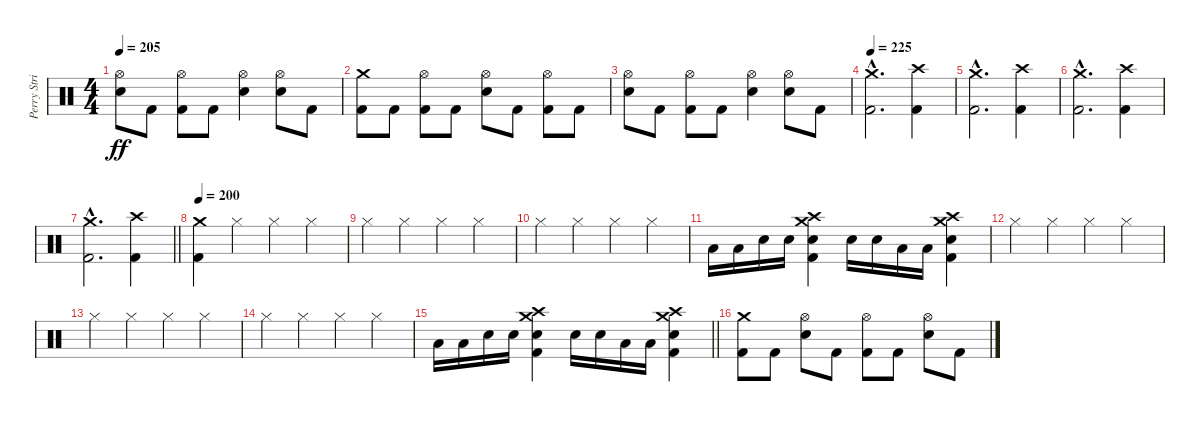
\track ("Perry Strickland" "Perry Stri") {instrument percussion}
\staff {score}
\articulation defaults
\ts (4 4)
\tempo 205
\clef neutral
\ks c
("Hi-Hat (open)" "Snare (hit) 2").8{dy ff} "Kick (hit) 2".8 ("Hi-Hat (open)" "Kick (hit) 2").8 "Kick (hit) 2".8 ("Hi-Hat (open)" "Snare (hit) 2").4 ("Hi-Hat (open)" "Snare (hit) 2").8 "Kick (hit) 2".8 |
("Crash medium (hit)" "Kick (hit) 2").8 "Kick (hit) 2".8 ("Hi-Hat (open)" "Kick (hit) 2").8 "Kick (hit) 2".8 ("Hi-Hat (open)" "Snare (hit) 2").8 "Kick (hit) 2".8 ("Hi-Hat (open)" "Kick (hit) 2").8 "Kick (hit) 2".8 |
("Hi-Hat (open)" "Snare (hit) 2").8 "Kick (hit) 2".8 ("Hi-Hat (open)" "Kick (hit) 2").8 "Kick (hit) 2".8 ("Hi-Hat (open)" "Snare (hit) 2").4 ("Hi-Hat (open)" "Snare (hit) 2").8 "Kick (hit) 2".8 |
\tempo 225
("Crash medium (hit)"{hac} "Kick (hit) 2"{hac}).2{d} ("Crash high (hit)" "Kick (hit) 2").4 |
("Crash medium (hit)"{hac} "Kick (hit) 2"{hac}).2{d} ("Crash high (hit)" "Kick (hit) 2").4 |
("Crash medium (hit)"{hac} "Kick (hit) 2"{hac}).2{d} ("Crash high (hit)" "Kick (hit) 2").4 |
\barLineRight lightlight
("Crash medium (hit)"{hac} "Kick (hit) 2"{hac}).2{d} ("Crash high (hit)" "Kick (hit) 2").4 |
\tempo 200
("Crash medium (hit)" "Kick (hit) 2").4 "Hi-Hat (closed)".4 "Hi-Hat (closed)".4 "Hi-Hat (closed)".4 |
"Hi-Hat (closed)".4 "Hi-Hat (closed)".4 "Hi-Hat (closed)".4 "Hi-Hat (closed)".4 |
"Hi-Hat (closed)".4 "Hi-Hat (closed)".4 "Hi-Hat (closed)".4 "Hi-Hat (closed)".4 |
"Low Tom (hit)".16 "Low Tom (hit)".16 "Snare (hit) 2".16 "Snare (hit) 2".16 ("Crash high (hit)" "Crash medium (hit)" "Snare (hit) 2" "Kick (hit) 2").4 "Snare (hit) 2".16 "Snare (hit) 2".16 "Low Tom (hit)".16 "Low Tom (hit)".16 ("Crash high (hit)" "Crash medium (hit)" "Snare (hit) 2" "Kick (hit) 2").4 |
"Hi-Hat (closed)".4 "Hi-Hat (closed)".4 "Hi-Hat (closed)".4 "Hi-Hat (closed)".4 |
"Hi-Hat (closed)".4 "Hi-Hat (closed)".4 "Hi-Hat (closed)".4 "Hi-Hat (closed)".4 |
"Hi-Hat (closed)".4 "Hi-Hat (closed)".4 "Hi-Hat (closed)".4 "Hi-Hat (closed)".4 |
\barLineRight lightlight "Low Tom (hit)".16 "Low Tom (hit)".16 "Snare (hit) 2".16 "Snare (hit) 2".16
("Crash high (hit)" "Crash medium (hit)" "Snare (hit) 2" "Kick (hit) 2").4 "Snare (hit) 2".16 "Snare (hit) 2".16 "Low Tom (hit)".16 "Low Tom (hit)".16 ("Crash high (hit)" "Crash medium (hit)" "Snare (hit) 2" "Kick (hit) 2").4 |
("Crash medium (hit)" "Kick (hit) 2").8 "Kick (hit) 2".8 ("Hi-Hat (open)" "Snare (hit) 2").8 "Kick (hit) 2".8 ("Hi-Hat (open)" "Kick (hit) 2").8 "Kick (hit) 2".8 ("Hi-Hat (open)" "Snare (hit) 2").8 "Kick (hit) 2".8
